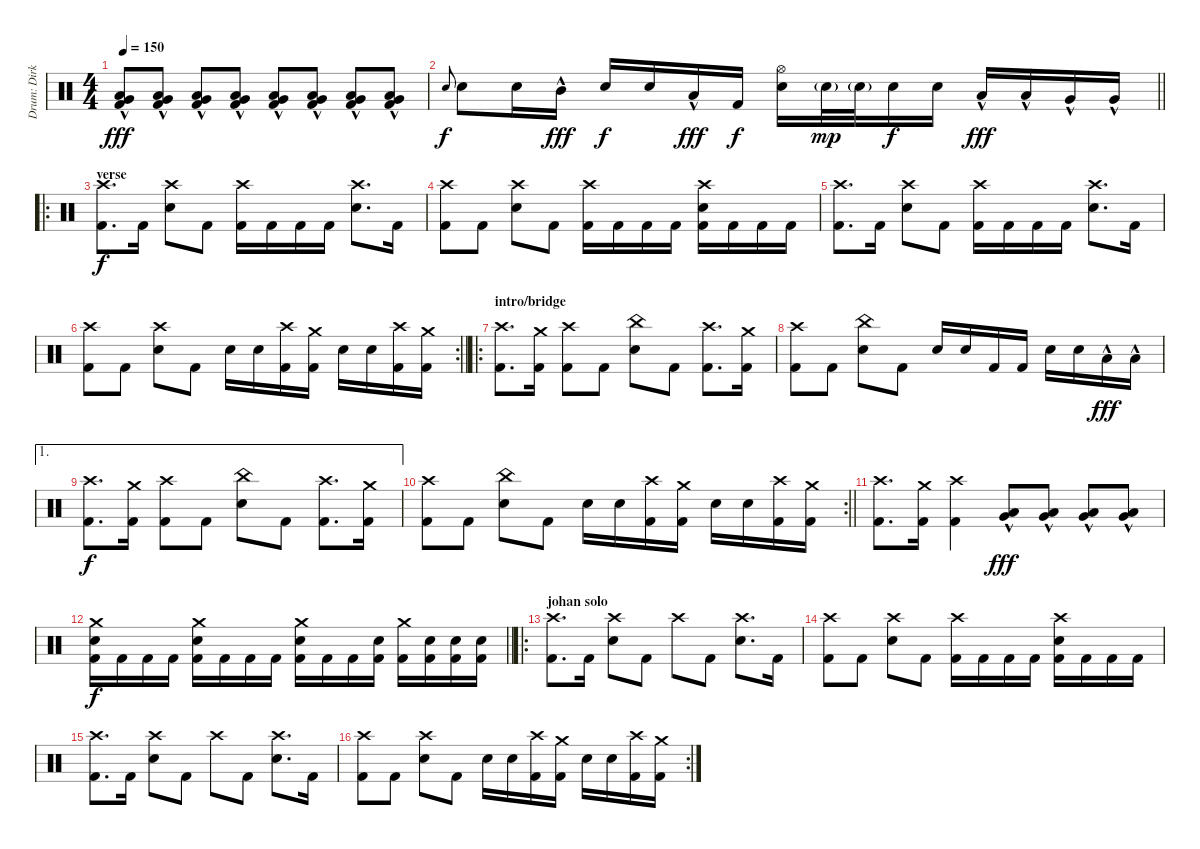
\track ("Drum: Dirk" "Drum: Dirk") {instrument percussion}
\staff {score}
\articulation defaults
\ts (4 4)
\tempo 150
\clef neutral
\ks c
("Low Tom (hit)"{hac} "Very Low Tom (hit)" "Kick (hit) 2").8{dy fff} ("Low Tom (hit)"{hac} "Very Low Tom (hit)" "Kick (hit) 2").8 ("Low Tom (hit)"{hac} "Very Low Tom (hit)" "Kick (hit) 2").8 ("Low Tom (hit)"{hac} "Very Low Tom (hit)" "Kick (hit) 2").8 ("Low Tom (hit)"{hac} "Very Low Tom (hit)" "Kick (hit) 2").8 ("Low Tom (hit)"{hac} "Very Low Tom (hit)" "Kick (hit) 2").8 ("Low Tom (hit)"{hac} "Very Low Tom (hit)" "Kick (hit) 2").8 ("Low Tom (hit)"{hac} "Very Low Tom (hit)" "Kick (hit) 2").8 |
\barLineRight lightlight "Electric Snare (hit)".8{gr onbeat dy f} "Electric Snare (hit)".8 "Electric Snare (hit)".16 "Mid Tom (hit)"{hac}.16{dy fff} "Electric Snare (hit)".16{dy f} "Electric Snare (hit)".16 "Low Tom (hit)"{hac}.16{dy fff} "Kick (hit) 2".16{dy f}
("Hi-Hat (open)" "Electric Snare (hit)").16 "Electric Snare (hit)"{g}.32{dy mp} "Electric Snare (hit)"{g}.32 "Electric Snare (hit)".16{dy f} "Electric Snare (hit)".16 "Low Tom (hit)"{hac}.16{dy fff} "Low Tom (hit)"{hac}.16 "Very Low Tom (hit)"{hac}.16 "Very Low Tom (hit)"{hac}.16 |
\ro
\section ("" "verse")
("Crash high (hit)" "Kick (hit) 2").8{d dy f} "Kick (hit) 2".16 ("Crash high (hit)" "Electric Snare (hit)").8 "Kick (hit) 2".8 ("Crash high (hit)" "Kick (hit) 2").16 "Kick (hit) 2".16 "Kick (hit) 2".16 "Kick (hit) 2".16 ("Crash high (hit)" "Electric Snare (hit)").8{d} "Kick (hit) 2".16 |
("Crash high (hit)" "Kick (hit) 2").8 "Kick (hit) 2".8 ("Crash high (hit)" "Electric Snare (hit)").8 "Kick (hit) 2".8 ("Crash high (hit)" "Kick (hit) 2").16 "Kick (hit) 2".16 "Kick (hit) 2".16 "Kick (hit) 2".16 ("Crash high (hit)" "Electric Snare (hit)" "Kick (hit) 2").16 "Kick (hit) 2".16 "Kick (hit) 2".16 "Kick (hit) 2".16 |
("Crash high (hit)" "Kick (hit) 2").8{d} "Kick (hit) 2".16 ("Crash high (hit)" "Electric Snare (hit)").8 "Kick (hit) 2".8 ("Crash high (hit)" "Kick (hit) 2").16 "Kick (hit) 2".16 "Kick (hit) 2".16 "Kick (hit) 2".16 ("Crash high (hit)" "Electric Snare (hit)").8{d} "Kick (hit) 2".16 |
\rc 2
\barLineRight lightlight
("Crash high (hit)" "Kick (hit) 2").8 "Kick (hit) 2".8 ("Crash high (hit)" "Electric Snare (hit)").8 "Kick (hit) 2".8 "Electric Snare (hit)".16 "Electric Snare (hit)".16 ("Crash high (hit)" "Kick (hit) 2").16 ("Crash medium (hit)" "Kick (hit) 2").16 "Electric Snare (hit)".16 "Electric Snare (hit)".16 ("Crash high (hit)" "Kick (hit) 2").16 ("Crash medium (hit)" "Kick (hit) 2").16 |
\ro
\section ("" "intro/bridge")
("Crash high (hit)" "Kick (hit) 2").8{d} ("Crash medium (hit)" "Kick (hit) 2").16 ("Crash high (hit)" "Kick (hit) 2").8 "Kick (hit) 2".8 ("China (hit)" "Electric Snare (hit)").8 "Kick (hit) 2".8 ("Crash high (hit)" "Kick (hit) 2").8{d} ("Crash medium (hit)" "Kick (hit) 2").16 |
("Crash high (hit)" "Kick (hit) 2").8 "Kick (hit) 2".8 ("China (hit)" "Electric Snare (hit)").8 "Kick (hit) 2".8 "Electric Snare (hit)".16 "Electric Snare (hit)".16 "Kick (hit) 2".16 "Kick (hit) 2".16 "Electric Snare (hit)".16 "Electric Snare (hit)".16 "Low Tom (hit)"{hac}.16{dy fff} "Low Tom (hit)"{hac}.16 |
\ae 1
("Crash high (hit)" "Kick (hit) 2").8{d dy f} ("Crash medium (hit)" "Kick (hit) 2").16 ("Crash high (hit)" "Kick (hit) 2").8 "Kick (hit) 2".8 ("China (hit)" "Electric Snare (hit)").8 "Kick (hit) 2".8 ("Crash high (hit)" "Kick (hit) 2").8{d} ("Crash medium (hit)" "Kick (hit) 2").16 |
\rc 2
\barLineRight lightlight
("Crash high (hit)" "Kick (hit) 2").8 "Kick (hit) 2".8 ("China (hit)" "Electric Snare (hit)").8 "Kick (hit) 2".8 "Electric Snare (hit)".16 "Electric Snare (hit)".16 ("Crash high (hit)" "Kick (hit) 2").16 ("Crash medium (hit)" "Kick (hit) 2").16 "Electric Snare (hit)".16 "Electric Snare (hit)".16 ("Crash high (hit)" "Kick (hit) 2").16 ("Crash medium (hit)" "Kick (hit) 2").16 |
("Crash high (hit)" "Kick (hit) 2").8{d} ("Crash medium (hit)" "Kick (hit) 2").16 ("Crash high (hit)" "Kick (hit) 2").4 ("Low Tom (hit)"{hac} "Very Low Tom (hit)"{hac}).8{dy fff} ("Low Tom (hit)"{hac} "Very Low Tom (hit)"{hac}).8 ("Low Tom (hit)"{hac} "Very Low Tom (hit)"{hac}).8 ("Low Tom (hit)"{hac} "Very Low Tom (hit)"{hac}).8 |
\barLineRight lightlight
("Crash medium (hit)" "Electric Snare (hit)" "Kick (hit) 2").16{dy f} "Kick (hit) 2".16 "Kick (hit) 2".16 "Kick (hit) 2".16 ("Crash medium (hit)" "Electric Snare (hit)" "Kick (hit) 2").16 "Kick (hit) 2".16 "Kick (hit) 2".16 "Kick (hit) 2".16 ("Crash medium (hit)" "Electric Snare (hit)" "Kick (hit) 2").16 "Kick (hit) 2".16 "Kick (hit) 2".16 ("Electric Snare (hit)" "Kick (hit) 2").16 ("Crash medium (hit)" "Kick (hit) 2").16 ("Electric Snare (hit)" "Kick (hit) 2").16 ("Electric Snare (hit)" "Kick (hit) 2").16 ("Electric Snare (hit)" "Kick (hit) 2").16 |
\ro
\section ("" "johan solo")
("Crash high (hit)" "Kick (hit) 2").8{d} "Kick (hit) 2".16 ("Crash high (hit)" "Electric Snare (hit)").8 "Kick (hit) 2".8 "Crash high (hit)".8 "Kick (hit) 2".8 ("Crash high (hit)" "Electric Snare (hit)").8{d} "Kick (hit) 2".16 |
("Crash high (hit)" "Kick (hit) 2").8 "Kick (hit) 2".8 ("Crash high (hit)" "Electric Snare (hit)").8 "Kick (hit) 2".8 ("Crash high (hit)" "Kick (hit) 2").16 "Kick (hit) 2".16 "Kick (hit) 2".16 "Kick (hit) 2".16 ("Crash high (hit)" "Electric Snare (hit)" "Kick (hit) 2").16 "Kick (hit) 2".16 "Kick (hit) 2".16 "Kick (hit) 2".16 |
("Crash high (hit)" "Kick (hit) 2").8{d} "Kick (hit) 2".16 ("Crash high (hit)" "Electric Snare (hit)").8 "Kick (hit) 2".8 "Crash high (hit)".8 "Kick (hit) 2".8 ("Crash high (hit)" "Electric Snare (hit)").8{d} "Kick (hit) 2".16 |
\rc 2
("Crash high (hit)" "Kick (hit) 2").8 "Kick (hit) 2".8 ("Crash high (hit)" "Electric Snare (hit)").8 "Kick (hit) 2".8 "Electric Snare (hit)".16 "Electric Snare (hit)".16 ("Crash high (hit)" "Kick (hit) 2").16 ("Crash medium (hit)" "Kick (hit) 2").16 "Electric Snare (hit)".16 "Electric Snare (hit)".16 ("Crash high (hit)" "Kick (hit) 2").16 ("Crash medium (hit)" "Kick (hit) 2").16
